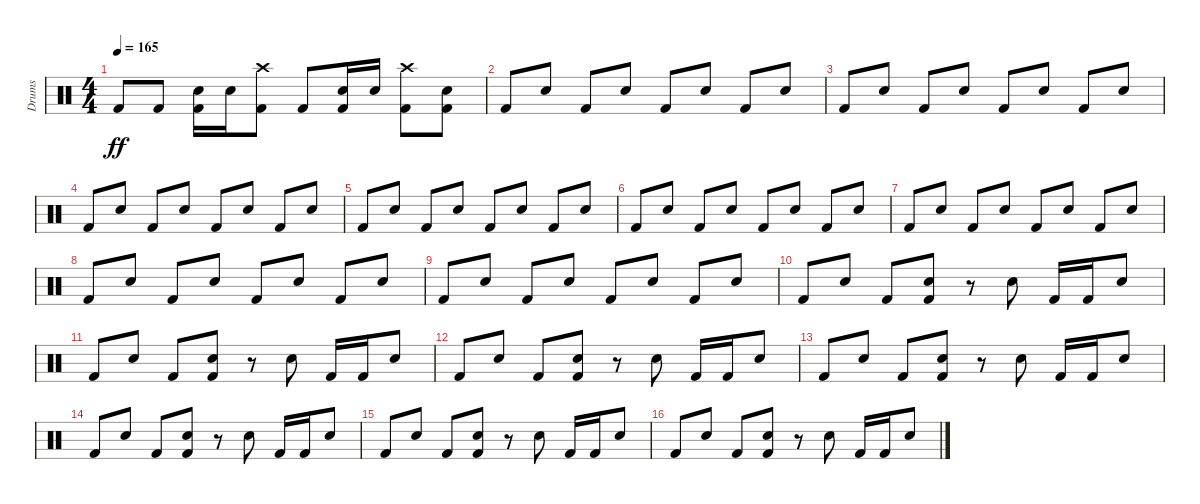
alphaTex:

\track ("Drums" "Drums") {instrument percussion}
\staff {score}
\articulation defaults
\ts (4 4)
\tempo 165
\clef neutral
\ks c "Kick (hit) 2".8{dy ff} "Kick (hit) 2".8
("Snare (hit) 2" "Kick (hit) 2").16 "Snare (hit) 2".16 ("Crash high (hit)" "Kick (hit) 2").8 "Kick (hit) 2".8 ("Snare (hit) 2" "Kick (hit) 2").16 "Snare (hit) 2".16 ("Crash high (hit)" "Kick (hit) 2").8 ("Snare (hit) 2" "Kick (hit) 2").8 |
"Kick (hit) 2".8 "Snare (hit) 2".8 "Kick (hit) 2".8 "Snare (hit) 2".8 "Kick (hit) 2".8 "Snare (hit) 2".8 "Kick (hit) 2".8 "Snare (hit) 2".8 |
"Kick (hit) 2".8 "Snare (hit) 2".8 "Kick (hit) 2".8 "Snare (hit) 2".8 "Kick (hit) 2".8 "Snare (hit) 2".8 "Kick (hit) 2".8 "Snare (hit) 2".8 |
"Kick (hit) 2".8 "Snare (hit) 2".8 "Kick (hit) 2".8 "Snare (hit) 2".8 "Kick (hit) 2".8 "Snare (hit) 2".8 "Kick (hit) 2".8 "Snare (hit) 2".8 |
"Kick (hit) 2".8 "Snare (hit) 2".8 "Kick (hit) 2".8 "Snare (hit) 2".8 "Kick (hit) 2".8 "Snare (hit) 2".8 "Kick (hit) 2".8 "Snare (hit) 2".8 |
"Kick (hit) 2".8 "Snare (hit) 2".8 "Kick (hit) 2".8 "Snare (hit) 2".8 "Kick (hit) 2".8 "Snare (hit) 2".8 "Kick (hit) 2".8 "Snare (hit) 2".8 |
"Kick (hit) 2".8 "Snare (hit) 2".8 "Kick (hit) 2".8 "Snare (hit) 2".8 "Kick (hit) 2".8 "Snare (hit) 2".8 "Kick (hit) 2".8 "Snare (hit) 2".8 |
"Kick (hit) 2".8 "Snare (hit) 2".8 "Kick (hit) 2".8 "Snare (hit) 2".8 "Kick (hit) 2".8 "Snare (hit) 2".8 "Kick (hit) 2".8 "Snare (hit) 2".8 |
"Kick (hit) 2".8 "Snare (hit) 2".8 "Kick (hit) 2".8 "Snare (hit) 2".8 "Kick (hit) 2".8 "Snare (hit) 2".8 "Kick (hit) 2".8 "Snare (hit) 2".8 |
"Kick (hit) 2".8 "Snare (hit) 2".8 "Kick (hit) 2".8 ("Kick (hit) 2" "Snare (hit) 2").8 r.8 "Snare (hit) 2".8 "Kick (hit) 2".16 "Kick (hit) 2".16 "Snare (hit) 2".8 |
"Kick (hit) 2".8 "Snare (hit) 2".8 "Kick (hit) 2".8 ("Snare (hit) 2" "Kick (hit) 2").8 r.8 "Snare (hit) 2".8 "Kick (hit) 2".16 "Kick (hit) 2".16 "Snare (hit) 2".8 |
"Kick (hit) 2".8 "Snare (hit) 2".8 "Kick (hit) 2".8 ("Kick (hit) 2" "Snare (hit) 2").8 r.8 "Snare (hit) 2".8 "Kick (hit) 2".16 "Kick (hit) 2".16 "Snare (hit) 2".8 |
"Kick (hit) 2".8 "Snare (hit) 2".8 "Kick (hit) 2".8 ("Snare (hit) 2" "Kick (hit) 2").8 r.8 "Snare (hit) 2".8 "Kick (hit) 2".16 "Kick (hit) 2".16 "Snare (hit) 2".8 |
"Kick (hit) 2".8 "Snare (hit) 2".8 "Kick (hit) 2".8 ("Kick (hit) 2" "Snare (hit) 2").8 r.8 "Snare (hit) 2".8 "Kick (hit) 2".16 "Kick (hit) 2".16 "Snare (hit) 2".8 |
"Kick (hit) 2".8 "Snare (hit) 2".8 "Kick (hit) 2".8 ("Snare (hit) 2" "Kick (hit) 2").8 r.8 "Snare (hit) 2".8 "Kick (hit) 2".16 "Kick (hit) 2".16 "Snare (hit) 2".8 |
"Kick (hit) 2".8 "Snare (hit) 2".8 "Kick (hit) 2".8 ("Kick (hit) 2" "Snare (hit) 2").8 r.8 "Snare (hit) 2".8 "Kick (hit) 2".16 "Kick (hit) 2".16 "Snare (hit) 2".8
